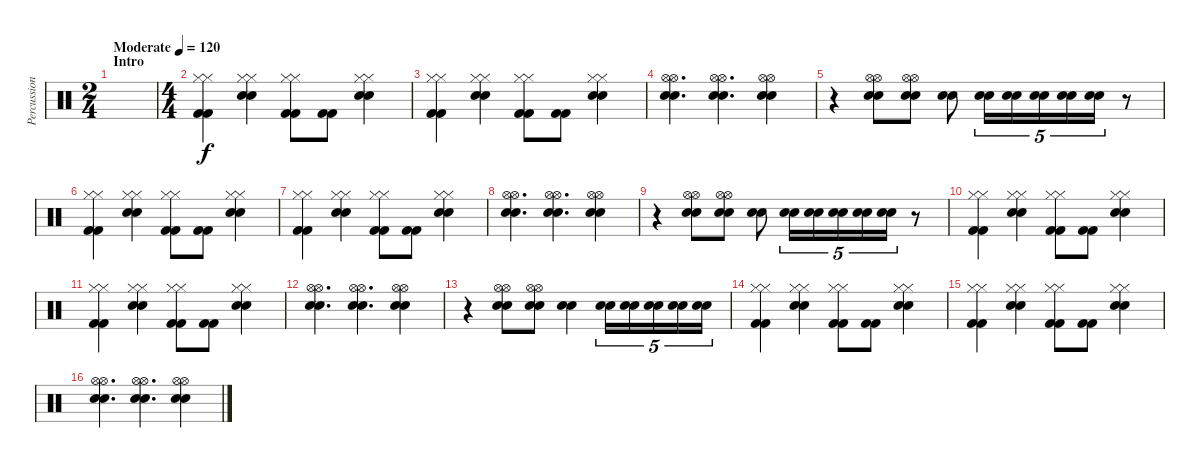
\track ("Percussion" "Percussion") {instrument percussion}
\staff {score}
\articulation defaults
\ts (2 4)
\section ("" "Intro")
\tempo (120 "Moderate")
\clef neutral
\ks c
|
\ts (4 4)
("Hi-Hat (closed)" "Hi-Hat (closed)" "Kick (hit) 2" "Kick (hit) 2").4 ("Hi-Hat (closed)" "Hi-Hat (closed)" "Electric Snare (hit)" "Electric Snare (hit)").4 ("Hi-Hat (closed)" "Hi-Hat (closed)" "Kick (hit) 2" "Kick (hit) 2").8 ("Kick (hit) 2" "Kick (hit) 2").8 ("Hi-Hat (closed)" "Hi-Hat (closed)" "Electric Snare (hit)" "Electric Snare (hit)").4 |
("Hi-Hat (closed)" "Hi-Hat (closed)" "Kick (hit) 2" "Kick (hit) 2").4 ("Hi-Hat (closed)" "Hi-Hat (closed)" "Electric Snare (hit)" "Electric Snare (hit)").4 ("Hi-Hat (closed)" "Hi-Hat (closed)" "Kick (hit) 2" "Kick (hit) 2").8 ("Kick (hit) 2" "Kick (hit) 2").8 ("Hi-Hat (closed)" "Hi-Hat (closed)" "Electric Snare (hit)" "Electric Snare (hit)").4 |
("Hi-Hat (open)" "Hi-Hat (open)" "Electric Snare (hit)" "Electric Snare (hit)").4{d} ("Hi-Hat (open)" "Hi-Hat (open)" "Electric Snare (hit)" "Electric Snare (hit)").4{d} ("Hi-Hat (open)" "Hi-Hat (open)" "Electric Snare (hit)" "Electric Snare (hit)").4 |
r.4 ("Hi-Hat (open)" "Hi-Hat (open)" "Electric Snare (hit)" "Electric Snare (hit)").8 ("Hi-Hat (open)" "Hi-Hat (open)" "Electric Snare (hit)" "Electric Snare (hit)").8 ("Electric Snare (hit)" "Electric Snare (hit)").8 ("Electric Snare (hit)" "Electric Snare (hit)").16{tu (5 4)} ("Electric Snare (hit)" "Electric Snare (hit)").16{tu (5 4)} ("Electric Snare (hit)" "Electric Snare (hit)").16{tu (5 4)} ("Electric Snare (hit)" "Electric Snare (hit)").16{tu (5 4)} ("Electric Snare (hit)" "Electric Snare (hit)").16{tu (5 4)} r.8 |
("Hi-Hat (closed)" "Hi-Hat (closed)" "Kick (hit) 2" "Kick (hit) 2").4 ("Hi-Hat (closed)" "Hi-Hat (closed)" "Electric Snare (hit)" "Electric Snare (hit)").4 ("Hi-Hat (closed)" "Hi-Hat (closed)" "Kick (hit) 2" "Kick (hit) 2").8 ("Kick (hit) 2" "Kick (hit) 2").8 ("Hi-Hat (closed)" "Hi-Hat (closed)" "Electric Snare (hit)" "Electric Snare (hit)").4 |
("Hi-Hat (closed)" "Hi-Hat (closed)" "Kick (hit) 2" "Kick (hit) 2").4 ("Hi-Hat (closed)" "Hi-Hat (closed)" "Electric Snare (hit)" "Electric Snare (hit)").4 ("Hi-Hat (closed)" "Hi-Hat (closed)" "Kick (hit) 2" "Kick (hit) 2").8 ("Kick (hit) 2" "Kick (hit) 2").8 ("Hi-Hat (closed)" "Hi-Hat (closed)" "Electric Snare (hit)" "Electric Snare (hit)").4 |
("Hi-Hat (open)" "Hi-Hat (open)" "Electric Snare (hit)" "Electric Snare (hit)").4{d} ("Hi-Hat (open)" "Hi-Hat (open)" "Electric Snare (hit)" "Electric Snare (hit)").4{d} ("Hi-Hat (open)" "Hi-Hat (open)" "Electric Snare (hit)" "Electric Snare (hit)").4 |
r.4 ("Hi-Hat (open)" "Hi-Hat (open)" "Electric Snare (hit)" "Electric Snare (hit)").8 ("Hi-Hat (open)" "Hi-Hat (open)" "Electric Snare (hit)" "Electric Snare (hit)").8 ("Electric Snare (hit)" "Electric Snare (hit)").8 ("Electric Snare (hit)" "Electric Snare (hit)").16{tu (5 4)} ("Electric Snare (hit)" "Electric Snare (hit)").16{tu (5 4)} ("Electric Snare (hit)" "Electric Snare (hit)").16{tu (5 4)} ("Electric Snare (hit)" "Electric Snare (hit)").16{tu (5 4)} ("Electric Snare (hit)" "Electric Snare (hit)").16{tu (5 4)} r.8 |
("Hi-Hat (closed)" "Hi-Hat (closed)" "Kick (hit) 2" "Kick (hit) 2").4 ("Hi-Hat (closed)" "Hi-Hat (closed)" "Electric Snare (hit)" "Electric Snare (hit)").4 ("Hi-Hat (closed)" "Hi-Hat (closed)" "Kick (hit) 2" "Kick (hit) 2").8 ("Kick (hit) 2" "Kick (hit) 2").8 ("Hi-Hat (closed)" "Hi-Hat (closed)" "Electric Snare (hit)" "Electric Snare (hit)").4 |
("Hi-Hat (closed)" "Hi-Hat (closed)" "Kick (hit) 2" "Kick (hit) 2").4 ("Hi-Hat (closed)" "Hi-Hat (closed)" "Electric Snare (hit)" "Electric Snare (hit)").4 ("Hi-Hat (closed)" "Hi-Hat (closed)" "Kick (hit) 2" "Kick (hit) 2").8 ("Kick (hit) 2" "Kick (hit) 2").8 ("Hi-Hat (closed)" "Hi-Hat (closed)" "Electric Snare (hit)" "Electric Snare (hit)").4 |
("Hi-Hat (open)" "Hi-Hat (open)" "Electric Snare (hit)" "Electric Snare (hit)").4{d} ("Hi-Hat (open)" "Hi-Hat (open)" "Electric Snare (hit)" "Electric Snare (hit)").4{d} ("Hi-Hat (open)" "Hi-Hat (open)" "Electric Snare (hit)" "Electric Snare (hit)").4 |
r.4 ("Hi-Hat (open)" "Hi-Hat (open)" "Electric Snare (hit)" "Electric Snare (hit)").8 ("Hi-Hat (open)" "Hi-Hat (open)" "Electric Snare (hit)" "Electric Snare (hit)").8 ("Electric Snare (hit)" "Electric Snare (hit)").4 ("Electric Snare (hit)" "Electric Snare (hit)").16{tu (5 4)} ("Electric Snare (hit)" "Electric Snare (hit)").16{tu (5 4)} ("Electric Snare (hit)" "Electric Snare (hit)").16{tu (5 4)} ("Electric Snare (hit)" "Electric Snare (hit)").16{tu (5 4)} ("Electric Snare (hit)" "Electric Snare (hit)").16{tu (5 4)} |
("Hi-Hat (closed)" "Hi-Hat (closed)" "Kick (hit) 2" "Kick (hit) 2").4 ("Hi-Hat (closed)" "Hi-Hat (closed)" "Electric Snare (hit)" "Electric Snare (hit)").4 ("Hi-Hat (closed)" "Hi-Hat (closed)" "Kick (hit) 2" "Kick (hit) 2").8 ("Kick (hit) 2" "Kick (hit) 2").8 ("Hi-Hat (closed)" "Hi-Hat (closed)" "Electric Snare (hit)" "Electric Snare (hit)").4 |
("Hi-Hat (closed)" "Hi-Hat (closed)" "Kick (hit) 2" "Kick (hit) 2").4 ("Hi-Hat (closed)" "Hi-Hat (closed)" "Electric Snare (hit)" "Electric Snare (hit)").4 ("Hi-Hat (closed)" "Hi-Hat (closed)" "Kick (hit) 2" "Kick (hit) 2").8 ("Kick (hit) 2" "Kick (hit) 2").8 ("Hi-Hat (closed)" "Hi-Hat (closed)" "Electric Snare (hit)" "Electric Snare (hit)").4 |
("Hi-Hat (open)" "Hi-Hat (open)" "Electric Snare (hit)" "Electric Snare (hit)").4{d} ("Hi-Hat (open)" "Hi-Hat (open)" "Electric Snare (hit)" "Electric Snare (hit)").4{d} ("Hi-Hat (open)" "Hi-Hat (open)" "Electric Snare (hit)" "Electric Snare (hit)").4
